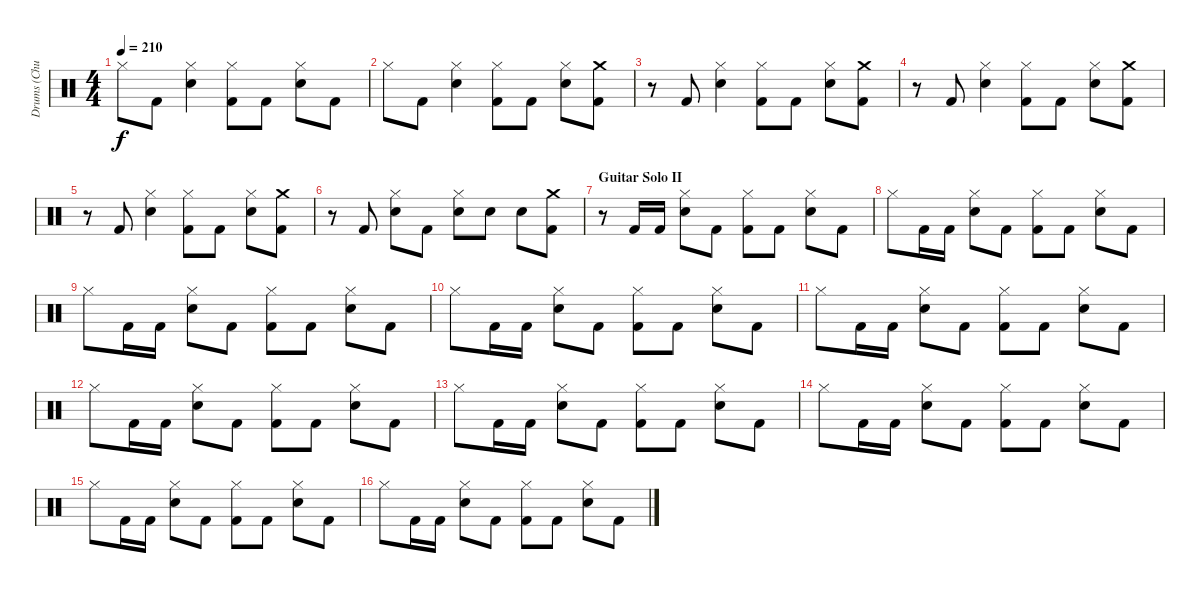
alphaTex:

\track ("Drums (Chuck Behler)" "Drums (Chu") {instrument percussion}
\staff {score}
\articulation defaults
\ts (4 4)
\tempo 210
\clef neutral
\ks c "Hi-Hat (closed)".8{dy f} "Kick (hit) 2".8
("Hi-Hat (closed)" "Snare (hit) 2").4 ("Hi-Hat (closed)" "Kick (hit) 2").8 "Kick (hit) 2".8 ("Hi-Hat (closed)" "Snare (hit) 2").8 "Kick (hit) 2".8 |
"Hi-Hat (closed)".8 "Kick (hit) 2".8 ("Hi-Hat (closed)" "Snare (hit) 2").4 ("Hi-Hat (closed)" "Kick (hit) 2").8 "Kick (hit) 2".8 ("Hi-Hat (closed)" "Snare (hit) 2").8 ("Crash medium (hit)" "Kick (hit) 2").8 |
r.8 "Kick (hit) 2".8 ("Hi-Hat (closed)" "Snare (hit) 2").4 ("Hi-Hat (closed)" "Kick (hit) 2").8 "Kick (hit) 2".8 ("Hi-Hat (closed)" "Snare (hit) 2").8 ("Crash medium (hit)" "Kick (hit) 2").8 |
r.8 "Kick (hit) 2".8 ("Hi-Hat (closed)" "Snare (hit) 2").4 ("Hi-Hat (closed)" "Kick (hit) 2").8 "Kick (hit) 2".8 ("Hi-Hat (closed)" "Snare (hit) 2").8 ("Crash medium (hit)" "Kick (hit) 2").8 |
r.8 "Kick (hit) 2".8 ("Hi-Hat (closed)" "Snare (hit) 2").4 ("Hi-Hat (closed)" "Kick (hit) 2").8 "Kick (hit) 2".8 ("Hi-Hat (closed)" "Snare (hit) 2").8 ("Crash medium (hit)" "Kick (hit) 2").8 |
r.8 "Kick (hit) 2".8 ("Hi-Hat (closed)" "Snare (hit) 2").8 "Kick (hit) 2".8 ("Hi-Hat (closed)" "Snare (hit) 2").8 "Snare (hit) 2".8 "Snare (hit) 2".8 ("Crash medium (hit)" "Kick (hit) 2").8 |
\section ("" "Guitar Solo II")
r.8 "Kick (hit) 2".16 "Kick (hit) 2".16 ("Hi-Hat (closed)" "Snare (hit) 2").8 "Kick (hit) 2".8 ("Hi-Hat (closed)" "Kick (hit) 2").8 "Kick (hit) 2".8 ("Hi-Hat (closed)" "Snare (hit) 2").8 "Kick (hit) 2".8 |
"Hi-Hat (closed)".8 "Kick (hit) 2".16 "Kick (hit) 2".16 ("Hi-Hat (closed)" "Snare (hit) 2").8 "Kick (hit) 2".8 ("Hi-Hat (closed)" "Kick (hit) 2").8 "Kick (hit) 2".8 ("Hi-Hat (closed)" "Snare (hit) 2").8 "Kick (hit) 2".8 |
"Hi-Hat (closed)".8 "Kick (hit) 2".16 "Kick (hit) 2".16 ("Hi-Hat (closed)" "Snare (hit) 2").8 "Kick (hit) 2".8 ("Hi-Hat (closed)" "Kick (hit) 2").8 "Kick (hit) 2".8 ("Hi-Hat (closed)" "Snare (hit) 2").8 "Kick (hit) 2".8 |
"Hi-Hat (closed)".8 "Kick (hit) 2".16 "Kick (hit) 2".16 ("Hi-Hat (closed)" "Snare (hit) 2").8 "Kick (hit) 2".8 ("Hi-Hat (closed)" "Kick (hit) 2").8 "Kick (hit) 2".8 ("Hi-Hat (closed)" "Snare (hit) 2").8 "Kick (hit) 2".8 |
"Hi-Hat (closed)".8 "Kick (hit) 2".16 "Kick (hit) 2".16 ("Hi-Hat (closed)" "Snare (hit) 2").8 "Kick (hit) 2".8 ("Hi-Hat (closed)" "Kick (hit) 2").8 "Kick (hit) 2".8 ("Hi-Hat (closed)" "Snare (hit) 2").8 "Kick (hit) 2".8 |
"Hi-Hat (closed)".8 "Kick (hit) 2".16 "Kick (hit) 2".16 ("Hi-Hat (closed)" "Snare (hit) 2").8 "Kick (hit) 2".8 ("Hi-Hat (closed)" "Kick (hit) 2").8 "Kick (hit) 2".8 ("Hi-Hat (closed)" "Snare (hit) 2").8 "Kick (hit) 2".8 |
"Hi-Hat (closed)".8 "Kick (hit) 2".16 "Kick (hit) 2".16 ("Hi-Hat (closed)" "Snare (hit) 2").8 "Kick (hit) 2".8 ("Hi-Hat (closed)" "Kick (hit) 2").8 "Kick (hit) 2".8 ("Hi-Hat (closed)" "Snare (hit) 2").8 "Kick (hit) 2".8 |
"Hi-Hat (closed)".8 "Kick (hit) 2".16 "Kick (hit) 2".16 ("Hi-Hat (closed)" "Snare (hit) 2").8 "Kick (hit) 2".8 ("Hi-Hat (closed)" "Kick (hit) 2").8 "Kick (hit) 2".8 ("Hi-Hat (closed)" "Snare (hit) 2").8 "Kick (hit) 2".8 |
"Hi-Hat (closed)".8 "Kick (hit) 2".16 "Kick (hit) 2".16 ("Hi-Hat (closed)" "Snare (hit) 2").8 "Kick (hit) 2".8 ("Hi-Hat (closed)" "Kick (hit) 2").8 "Kick (hit) 2".8 ("Hi-Hat (closed)" "Snare (hit) 2").8 "Kick (hit) 2".8 |
"Hi-Hat (closed)".8 "Kick (hit) 2".16 "Kick (hit) 2".16 ("Hi-Hat (closed)" "Snare (hit) 2").8 "Kick (hit) 2".8 ("Hi-Hat (closed)" "Kick (hit) 2").8 "Kick (hit) 2".8 ("Hi-Hat (closed)" "Snare (hit) 2").8 "Kick (hit) 2".8
